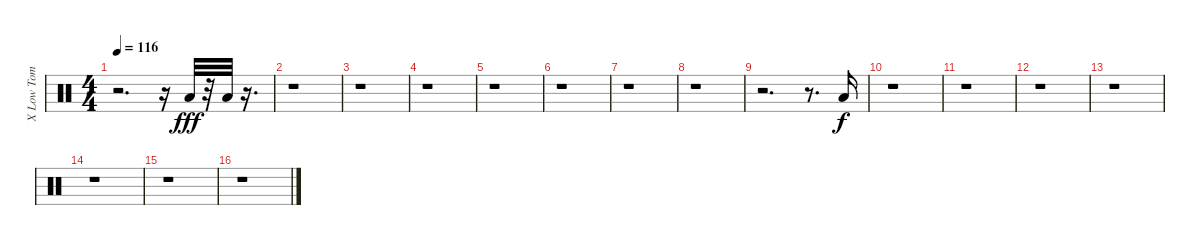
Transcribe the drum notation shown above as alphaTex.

\track ("X Low Tom           " "X Low Tom ") {instrument percussion}
\staff {score}
\articulation defaults
\ts (4 4)
\tempo 116
\clef neutral
\ks c
r.2{d dy fff} r.16 "Low Floor Tom (hit)".32 r.32 "Low Floor Tom (hit)".32 r.16{d} |
r.1 |
r.1 |
r.1 |
r.1 |
r.1 |
r.1 |
r.1 |
r.2{d} r.8{d} "Low Floor Tom (hit)".16{dy f} |
r.1 |
r.1 |
r.1 |
r.1 |
r.1 |
r.1 |
r.1
